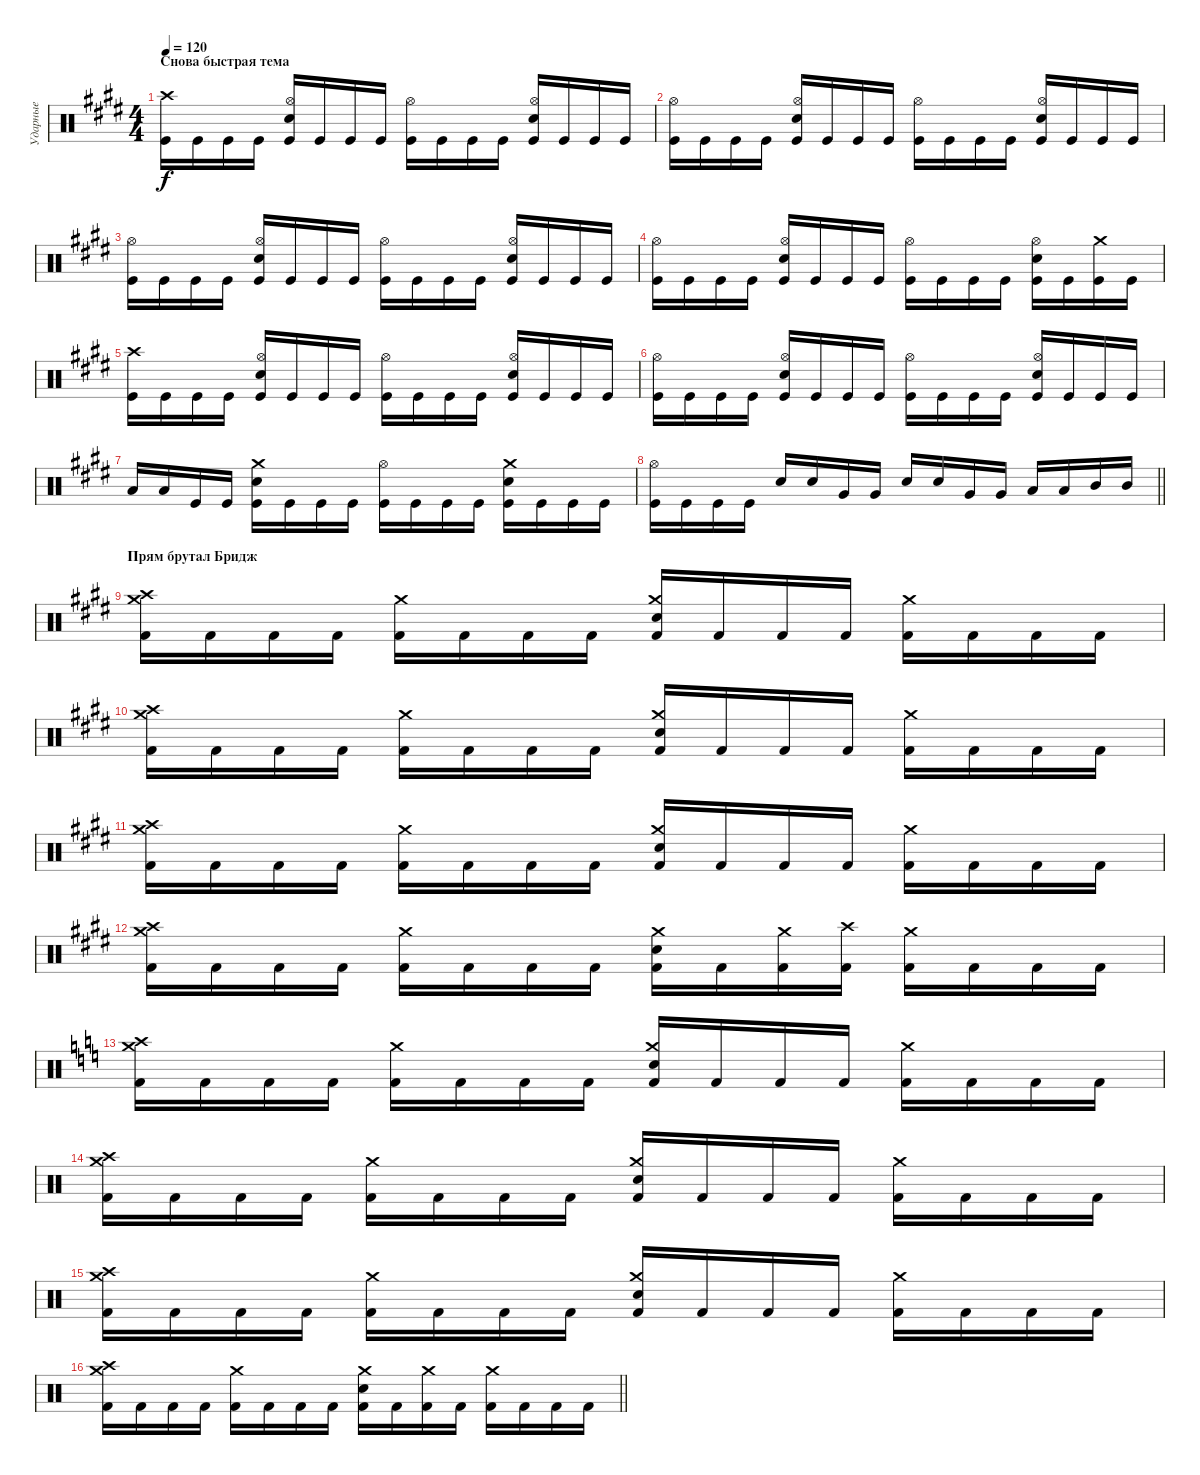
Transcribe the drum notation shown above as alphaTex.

\track ("Ударные" "Ударные") {instrument percussion}
\staff {score}
\articulation defaults
\ts (4 4)
\section ("" "Снова быстрая тема")
\tempo 120
\clef neutral
\ks e
("Crash high (hit)" "Kick (hit)").16{dy f} "Kick (hit)".16 "Kick (hit)".16 "Kick (hit)".16 ("Hi-Hat (open)" "Electric Snare (hit)" "Kick (hit)").16 "Kick (hit)".16 "Kick (hit)".16 "Kick (hit)".16 ("Hi-Hat (open)" "Kick (hit)").16 "Kick (hit)".16 "Kick (hit)".16 "Kick (hit)".16 ("Hi-Hat (open)" "Electric Snare (hit)" "Kick (hit)").16 "Kick (hit)".16 "Kick (hit)".16 "Kick (hit)".16 |
("Hi-Hat (open)" "Kick (hit)").16 "Kick (hit)".16 "Kick (hit)".16 "Kick (hit)".16 ("Hi-Hat (open)" "Electric Snare (hit)" "Kick (hit)").16 "Kick (hit)".16 "Kick (hit)".16 "Kick (hit)".16 ("Hi-Hat (open)" "Kick (hit)").16 "Kick (hit)".16 "Kick (hit)".16 "Kick (hit)".16 ("Hi-Hat (open)" "Electric Snare (hit)" "Kick (hit)").16 "Kick (hit)".16 "Kick (hit)".16 "Kick (hit)".16 |
("Hi-Hat (open)" "Kick (hit)").16 "Kick (hit)".16 "Kick (hit)".16 "Kick (hit)".16 ("Hi-Hat (open)" "Electric Snare (hit)" "Kick (hit)").16 "Kick (hit)".16 "Kick (hit)".16 "Kick (hit)".16 ("Hi-Hat (open)" "Kick (hit)").16 "Kick (hit)".16 "Kick (hit)".16 "Kick (hit)".16 ("Hi-Hat (open)" "Electric Snare (hit)" "Kick (hit)").16 "Kick (hit)".16 "Kick (hit)".16 "Kick (hit)".16 |
("Hi-Hat (open)" "Kick (hit)").16 "Kick (hit)".16 "Kick (hit)".16 "Kick (hit)".16 ("Hi-Hat (open)" "Electric Snare (hit)" "Kick (hit)").16 "Kick (hit)".16 "Kick (hit)".16 "Kick (hit)".16 ("Hi-Hat (open)" "Kick (hit)").16 "Kick (hit)".16 "Kick (hit)".16 "Kick (hit)".16 ("Hi-Hat (open)" "Electric Snare (hit)" "Kick (hit)").16 "Kick (hit)".16 ("Crash medium (hit)" "Kick (hit)").16 "Kick (hit)".16 |
("Crash high (hit)" "Kick (hit)").16 "Kick (hit)".16 "Kick (hit)".16 "Kick (hit)".16 ("Hi-Hat (open)" "Electric Snare (hit)" "Kick (hit)").16 "Kick (hit)".16 "Kick (hit)".16 "Kick (hit)".16 ("Hi-Hat (open)" "Kick (hit)").16 "Kick (hit)".16 "Kick (hit)".16 "Kick (hit)".16 ("Hi-Hat (open)" "Electric Snare (hit)" "Kick (hit)").16 "Kick (hit)".16 "Kick (hit)".16 "Kick (hit)".16 |
("Hi-Hat (open)" "Kick (hit)").16 "Kick (hit)".16 "Kick (hit)".16 "Kick (hit)".16 ("Hi-Hat (open)" "Electric Snare (hit)" "Kick (hit)").16 "Kick (hit)".16 "Kick (hit)".16 "Kick (hit)".16 ("Hi-Hat (open)" "Kick (hit)").16 "Kick (hit)".16 "Kick (hit)".16 "Kick (hit)".16 ("Hi-Hat (open)" "Electric Snare (hit)" "Kick (hit)").16 "Kick (hit)".16 "Kick (hit)".16 "Kick (hit)".16 |
"Low Floor Tom (hit)".16 "Low Floor Tom (hit)".16 "Kick (hit)".16 "Kick (hit)".16 ("Crash medium (hit)" "Electric Snare (hit)" "Kick (hit)").16 "Kick (hit)".16 "Kick (hit)".16 "Kick (hit)".16 ("Hi-Hat (open)" "Kick (hit)").16 "Kick (hit)".16 "Kick (hit)".16 "Kick (hit)".16 ("Crash medium (hit)" "Electric Snare (hit)" "Kick (hit)").16 "Kick (hit)".16 "Kick (hit)".16 "Kick (hit)".16 |
\barLineRight lightlight
("Hi-Hat (open)" "Kick (hit)").16 "Kick (hit)".16 "Kick (hit)".16 "Kick (hit)".16 "Electric Snare (hit)".16 "Electric Snare (hit)".16 "Very Low Tom (hit)".16 "Very Low Tom (hit)".16 "Electric Snare (hit)".16 "Electric Snare (hit)".16 "Very Low Tom (hit)".16 "Very Low Tom (hit)".16 "Low Tom (hit)".16 "Low Tom (hit)".16 "Mid Tom (hit)".16 "Mid Tom (hit)".16 |
\section ("" "Прям брутал Бридж")
("Crash medium (hit)" "Crash high (hit)" "Kick (hit) 2").16 "Kick (hit) 2".16 "Kick (hit) 2".16 "Kick (hit) 2".16 ("Crash medium (hit)" "Kick (hit) 2").16 "Kick (hit) 2".16 "Kick (hit) 2".16 "Kick (hit) 2".16 ("Crash medium (hit)" "Electric Snare (hit)" "Kick (hit) 2").16 "Kick (hit) 2".16 "Kick (hit) 2".16 "Kick (hit) 2".16 ("Crash medium (hit)" "Kick (hit) 2").16 "Kick (hit) 2".16 "Kick (hit) 2".16 "Kick (hit) 2".16 |
("Crash medium (hit)" "Crash high (hit)" "Kick (hit) 2").16 "Kick (hit) 2".16 "Kick (hit) 2".16 "Kick (hit) 2".16 ("Crash medium (hit)" "Kick (hit) 2").16 "Kick (hit) 2".16 "Kick (hit) 2".16 "Kick (hit) 2".16 ("Crash medium (hit)" "Electric Snare (hit)" "Kick (hit) 2").16 "Kick (hit) 2".16 "Kick (hit) 2".16 "Kick (hit) 2".16 ("Crash medium (hit)" "Kick (hit) 2").16 "Kick (hit) 2".16 "Kick (hit) 2".16 "Kick (hit) 2".16 |
("Crash medium (hit)" "Crash high (hit)" "Kick (hit) 2").16 "Kick (hit) 2".16 "Kick (hit) 2".16 "Kick (hit) 2".16 ("Crash medium (hit)" "Kick (hit) 2").16 "Kick (hit) 2".16 "Kick (hit) 2".16 "Kick (hit) 2".16 ("Crash medium (hit)" "Electric Snare (hit)" "Kick (hit) 2").16 "Kick (hit) 2".16 "Kick (hit) 2".16 "Kick (hit) 2".16 ("Crash medium (hit)" "Kick (hit) 2").16 "Kick (hit) 2".16 "Kick (hit) 2".16 "Kick (hit) 2".16 |
("Crash medium (hit)" "Crash high (hit)" "Kick (hit) 2").16 "Kick (hit) 2".16 "Kick (hit) 2".16 "Kick (hit) 2".16 ("Crash medium (hit)" "Kick (hit) 2").16 "Kick (hit) 2".16 "Kick (hit) 2".16 "Kick (hit) 2".16 ("Crash medium (hit)" "Electric Snare (hit)" "Kick (hit) 2").16 "Kick (hit) 2".16 ("Crash medium (hit)" "Kick (hit) 2").16 ("Crash high (hit)" "Kick (hit) 2").16 ("Crash medium (hit)" "Kick (hit) 2").16 "Kick (hit) 2".16 "Kick (hit) 2".16 "Kick (hit) 2".16 |
\ks c
("Crash medium (hit)" "Crash high (hit)" "Kick (hit) 2").16 "Kick (hit) 2".16 "Kick (hit) 2".16 "Kick (hit) 2".16 ("Crash medium (hit)" "Kick (hit) 2").16 "Kick (hit) 2".16 "Kick (hit) 2".16 "Kick (hit) 2".16 ("Crash medium (hit)" "Electric Snare (hit)" "Kick (hit) 2").16 "Kick (hit) 2".16 "Kick (hit) 2".16 "Kick (hit) 2".16 ("Crash medium (hit)" "Kick (hit) 2").16 "Kick (hit) 2".16 "Kick (hit) 2".16 "Kick (hit) 2".16 |
("Crash medium (hit)" "Crash high (hit)" "Kick (hit) 2").16 "Kick (hit) 2".16 "Kick (hit) 2".16 "Kick (hit) 2".16 ("Crash medium (hit)" "Kick (hit) 2").16 "Kick (hit) 2".16 "Kick (hit) 2".16 "Kick (hit) 2".16 ("Crash medium (hit)" "Electric Snare (hit)" "Kick (hit) 2").16 "Kick (hit) 2".16 "Kick (hit) 2".16 "Kick (hit) 2".16 ("Crash medium (hit)" "Kick (hit) 2").16 "Kick (hit) 2".16 "Kick (hit) 2".16 "Kick (hit) 2".16 |
("Crash medium (hit)" "Crash high (hit)" "Kick (hit) 2").16 "Kick (hit) 2".16 "Kick (hit) 2".16 "Kick (hit) 2".16 ("Crash medium (hit)" "Kick (hit) 2").16 "Kick (hit) 2".16 "Kick (hit) 2".16 "Kick (hit) 2".16 ("Crash medium (hit)" "Electric Snare (hit)" "Kick (hit) 2").16 "Kick (hit) 2".16 "Kick (hit) 2".16 "Kick (hit) 2".16 ("Crash medium (hit)" "Kick (hit) 2").16 "Kick (hit) 2".16 "Kick (hit) 2".16 "Kick (hit) 2".16 |
\barLineRight lightlight
("Crash medium (hit)" "Crash high (hit)" "Kick (hit) 2").16 "Kick (hit) 2".16 "Kick (hit) 2".16 "Kick (hit) 2".16 ("Crash medium (hit)" "Kick (hit) 2").16 "Kick (hit) 2".16 "Kick (hit) 2".16 "Kick (hit) 2".16 ("Crash medium (hit)" "Electric Snare (hit)" "Kick (hit) 2").16 "Kick (hit) 2".16 ("Crash medium (hit)" "Kick (hit) 2").16 "Kick (hit) 2".16 ("Crash medium (hit)" "Kick (hit) 2").16 "Kick (hit) 2".16 "Kick (hit) 2".16 "Kick (hit) 2".16
